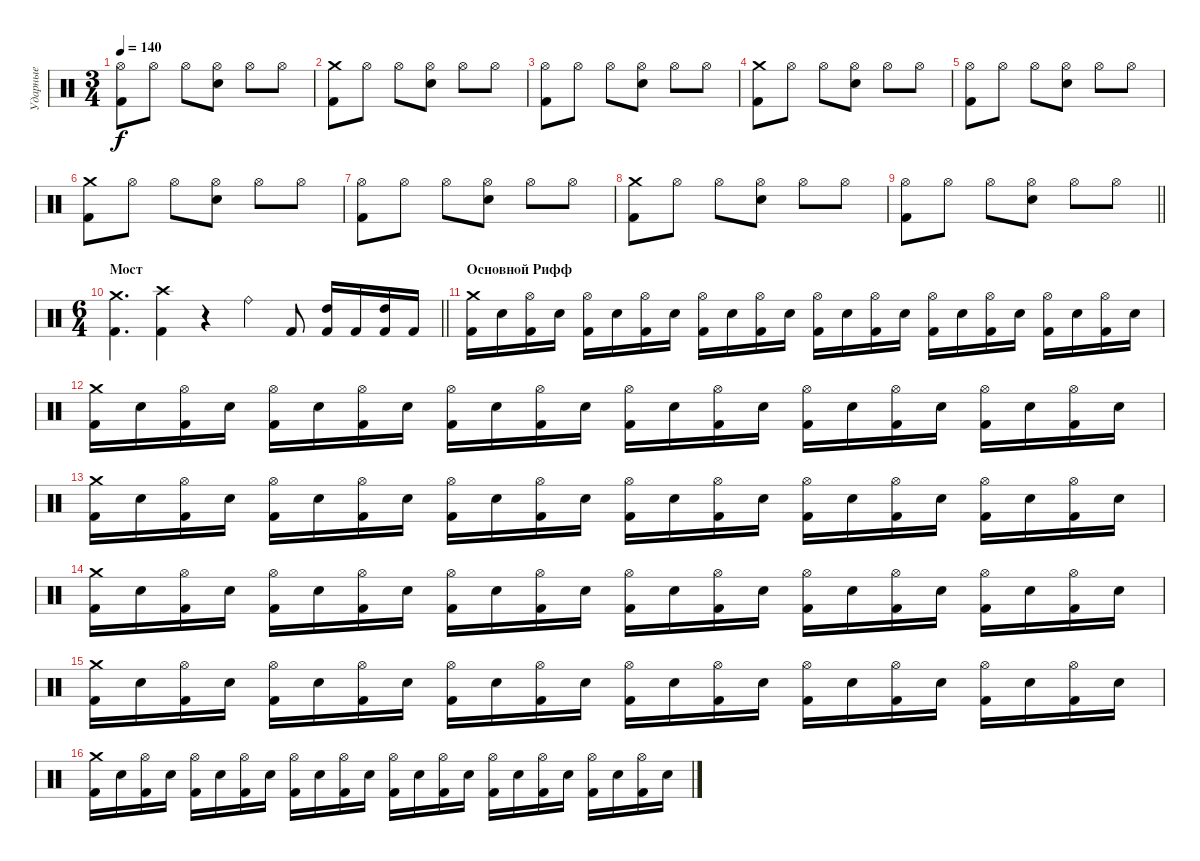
\track ("Ударные" "Ударные") {instrument percussion}
\staff {score}
\articulation defaults
\ts (3 4)
\tempo 140
\clef neutral
\ks c
("Hi-Hat (open)" "Kick (hit) 2").8{dy f} "Hi-Hat (open)".8 "Hi-Hat (open)".8 ("Hi-Hat (open)" "Electric Snare (hit)").8 "Hi-Hat (open)".8 "Hi-Hat (open)".8 |
("Crash medium (hit)" "Kick (hit) 2").8 "Hi-Hat (open)".8 "Hi-Hat (open)".8 ("Hi-Hat (open)" "Electric Snare (hit)").8 "Hi-Hat (open)".8 "Hi-Hat (open)".8 |
("Hi-Hat (open)" "Kick (hit) 2").8 "Hi-Hat (open)".8 "Hi-Hat (open)".8 ("Hi-Hat (open)" "Electric Snare (hit)").8 "Hi-Hat (open)".8 "Hi-Hat (open)".8 |
("Crash medium (hit)" "Kick (hit) 2").8 "Hi-Hat (open)".8 "Hi-Hat (open)".8 ("Hi-Hat (open)" "Electric Snare (hit)").8 "Hi-Hat (open)".8 "Hi-Hat (open)".8 |
("Hi-Hat (open)" "Kick (hit) 2").8 "Hi-Hat (open)".8 "Hi-Hat (open)".8 ("Hi-Hat (open)" "Electric Snare (hit)").8 "Hi-Hat (open)".8 "Hi-Hat (open)".8 |
("Crash medium (hit)" "Kick (hit) 2").8 "Hi-Hat (open)".8 "Hi-Hat (open)".8 ("Hi-Hat (open)" "Electric Snare (hit)").8 "Hi-Hat (open)".8 "Hi-Hat (open)".8 |
("Hi-Hat (open)" "Kick (hit) 2").8 "Hi-Hat (open)".8 "Hi-Hat (open)".8 ("Hi-Hat (open)" "Electric Snare (hit)").8 "Hi-Hat (open)".8 "Hi-Hat (open)".8 |
("Crash medium (hit)" "Kick (hit) 2").8 "Hi-Hat (open)".8 "Hi-Hat (open)".8 ("Hi-Hat (open)" "Electric Snare (hit)").8 "Hi-Hat (open)".8 "Hi-Hat (open)".8 |
\barLineRight lightlight
("Hi-Hat (open)" "Kick (hit) 2").8 "Hi-Hat (open)".8 "Hi-Hat (open)".8 ("Hi-Hat (open)" "Electric Snare (hit)").8 "Hi-Hat (open)".8 "Hi-Hat (open)".8 |
\ts (6 4)
\section ("" "Мост")
\barLineRight lightlight
("Crash medium (hit)" "Kick (hit) 2").4{d} ("Crash high (hit)" "Kick (hit) 2").4 r.4 "Ride (bell)".4 "Kick (hit) 2".8 ("High Tom (hit)" "Kick (hit) 2").16 "Kick (hit) 2".16 ("High Tom (hit)" "Kick (hit) 2").16 "Kick (hit) 2".16 |
\section ("" "Основной Рифф")
("Crash medium (hit)" "Kick (hit) 2").16 "Electric Snare (hit)".16 ("Hi-Hat (open)" "Kick (hit) 2").16 "Electric Snare (hit)".16 ("Hi-Hat (open)" "Kick (hit) 2").16 "Electric Snare (hit)".16 ("Hi-Hat (open)" "Kick (hit) 2").16 "Electric Snare (hit)".16 ("Hi-Hat (open)" "Kick (hit) 2").16 "Electric Snare (hit)".16 ("Hi-Hat (open)" "Kick (hit) 2").16 "Electric Snare (hit)".16 ("Hi-Hat (open)" "Kick (hit) 2").16 "Electric Snare (hit)".16 ("Hi-Hat (open)" "Kick (hit) 2").16 "Electric Snare (hit)".16 ("Hi-Hat (open)" "Kick (hit) 2").16 "Electric Snare (hit)".16 ("Hi-Hat (open)" "Kick (hit) 2").16 "Electric Snare (hit)".16 ("Hi-Hat (open)" "Kick (hit) 2").16 "Electric Snare (hit)".16 ("Hi-Hat (open)" "Kick (hit) 2").16 "Electric Snare (hit)".16 |
("Crash medium (hit)" "Kick (hit) 2").16 "Electric Snare (hit)".16 ("Hi-Hat (open)" "Kick (hit) 2").16 "Electric Snare (hit)".16 ("Hi-Hat (open)" "Kick (hit) 2").16 "Electric Snare (hit)".16 ("Hi-Hat (open)" "Kick (hit) 2").16 "Electric Snare (hit)".16 ("Hi-Hat (open)" "Kick (hit) 2").16 "Electric Snare (hit)".16 ("Hi-Hat (open)" "Kick (hit) 2").16 "Electric Snare (hit)".16 ("Hi-Hat (open)" "Kick (hit) 2").16 "Electric Snare (hit)".16 ("Hi-Hat (open)" "Kick (hit) 2").16 "Electric Snare (hit)".16 ("Hi-Hat (open)" "Kick (hit) 2").16 "Electric Snare (hit)".16 ("Hi-Hat (open)" "Kick (hit) 2").16 "Electric Snare (hit)".16 ("Hi-Hat (open)" "Kick (hit) 2").16 "Electric Snare (hit)".16 ("Hi-Hat (open)" "Kick (hit) 2").16 "Electric Snare (hit)".16 |
("Crash medium (hit)" "Kick (hit) 2").16 "Electric Snare (hit)".16 ("Hi-Hat (open)" "Kick (hit) 2").16 "Electric Snare (hit)".16 ("Hi-Hat (open)" "Kick (hit) 2").16 "Electric Snare (hit)".16 ("Hi-Hat (open)" "Kick (hit) 2").16 "Electric Snare (hit)".16 ("Hi-Hat (open)" "Kick (hit) 2").16 "Electric Snare (hit)".16 ("Hi-Hat (open)" "Kick (hit) 2").16 "Electric Snare (hit)".16 ("Hi-Hat (open)" "Kick (hit) 2").16 "Electric Snare (hit)".16 ("Hi-Hat (open)" "Kick (hit) 2").16 "Electric Snare (hit)".16 ("Hi-Hat (open)" "Kick (hit) 2").16 "Electric Snare (hit)".16 ("Hi-Hat (open)" "Kick (hit) 2").16 "Electric Snare (hit)".16 ("Hi-Hat (open)" "Kick (hit) 2").16 "Electric Snare (hit)".16 ("Hi-Hat (open)" "Kick (hit) 2").16 "Electric Snare (hit)".16 |
("Crash medium (hit)" "Kick (hit) 2").16 "Electric Snare (hit)".16 ("Hi-Hat (open)" "Kick (hit) 2").16 "Electric Snare (hit)".16 ("Hi-Hat (open)" "Kick (hit) 2").16 "Electric Snare (hit)".16 ("Hi-Hat (open)" "Kick (hit) 2").16 "Electric Snare (hit)".16 ("Hi-Hat (open)" "Kick (hit) 2").16 "Electric Snare (hit)".16 ("Hi-Hat (open)" "Kick (hit) 2").16 "Electric Snare (hit)".16 ("Hi-Hat (open)" "Kick (hit) 2").16 "Electric Snare (hit)".16 ("Hi-Hat (open)" "Kick (hit) 2").16 "Electric Snare (hit)".16 ("Hi-Hat (open)" "Kick (hit) 2").16 "Electric Snare (hit)".16 ("Hi-Hat (open)" "Kick (hit) 2").16 "Electric Snare (hit)".16 ("Hi-Hat (open)" "Kick (hit) 2").16 "Electric Snare (hit)".16 ("Hi-Hat (open)" "Kick (hit) 2").16 "Electric Snare (hit)".16 |
("Crash medium (hit)" "Kick (hit) 2").16 "Electric Snare (hit)".16 ("Hi-Hat (open)" "Kick (hit) 2").16 "Electric Snare (hit)".16 ("Hi-Hat (open)" "Kick (hit) 2").16 "Electric Snare (hit)".16 ("Hi-Hat (open)" "Kick (hit) 2").16 "Electric Snare (hit)".16 ("Hi-Hat (open)" "Kick (hit) 2").16 "Electric Snare (hit)".16 ("Hi-Hat (open)" "Kick (hit) 2").16 "Electric Snare (hit)".16 ("Hi-Hat (open)" "Kick (hit) 2").16 "Electric Snare (hit)".16 ("Hi-Hat (open)" "Kick (hit) 2").16 "Electric Snare (hit)".16 ("Hi-Hat (open)" "Kick (hit) 2").16 "Electric Snare (hit)".16 ("Hi-Hat (open)" "Kick (hit) 2").16 "Electric Snare (hit)".16 ("Hi-Hat (open)" "Kick (hit) 2").16 "Electric Snare (hit)".16 ("Hi-Hat (open)" "Kick (hit) 2").16 "Electric Snare (hit)".16 |
("Crash medium (hit)" "Kick (hit) 2").16 "Electric Snare (hit)".16 ("Hi-Hat (open)" "Kick (hit) 2").16 "Electric Snare (hit)".16 ("Hi-Hat (open)" "Kick (hit) 2").16 "Electric Snare (hit)".16 ("Hi-Hat (open)" "Kick (hit) 2").16 "Electric Snare (hit)".16 ("Hi-Hat (open)" "Kick (hit) 2").16 "Electric Snare (hit)".16 ("Hi-Hat (open)" "Kick (hit) 2").16 "Electric Snare (hit)".16 ("Hi-Hat (open)" "Kick (hit) 2").16 "Electric Snare (hit)".16 ("Hi-Hat (open)" "Kick (hit) 2").16 "Electric Snare (hit)".16 ("Hi-Hat (open)" "Kick (hit) 2").16 "Electric Snare (hit)".16 ("Hi-Hat (open)" "Kick (hit) 2").16 "Electric Snare (hit)".16 ("Hi-Hat (open)" "Kick (hit) 2").16 "Electric Snare (hit)".16 ("Hi-Hat (open)" "Kick (hit) 2").16 "Electric Snare (hit)".16
